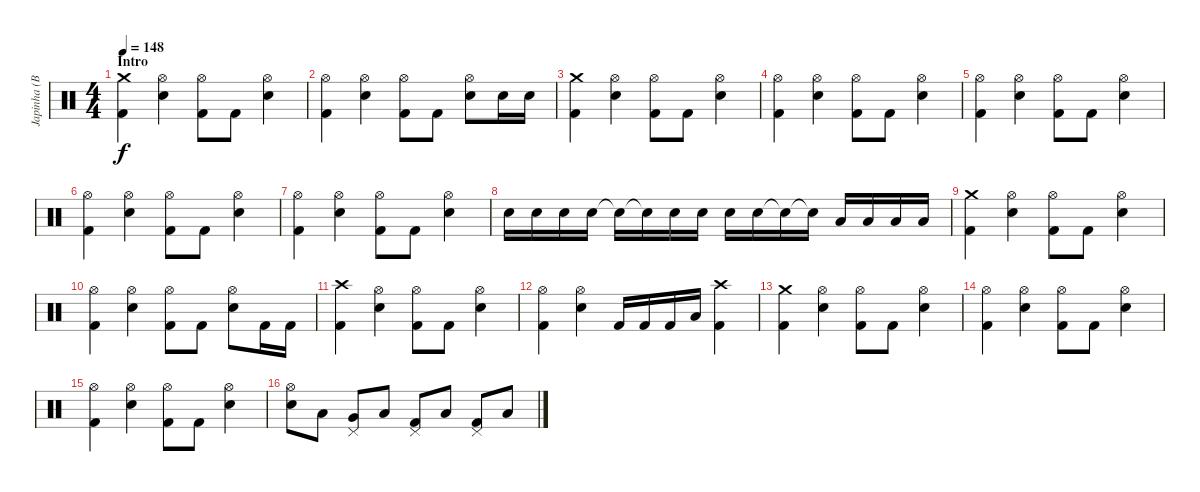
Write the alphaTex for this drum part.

\track ("Japinha (Bateria)" "Japinha (B") {instrument percussion}
\staff {score}
\articulation defaults
\ts (4 4)
\section ("" "Intro")
\tempo 148
\clef neutral
\ks c
("Crash medium (hit)" "Kick (hit) 2").4{dy f} ("Hi-Hat (open)" "Snare (hit) 2").4 ("Hi-Hat (open)" "Kick (hit) 2").8 "Kick (hit) 2".8 ("Hi-Hat (open)" "Snare (hit) 2").4 |
("Hi-Hat (open)" "Kick (hit) 2").4 ("Hi-Hat (open)" "Snare (hit) 2").4 ("Hi-Hat (open)" "Kick (hit) 2").8 "Kick (hit) 2".8 ("Hi-Hat (open)" "Snare (hit) 2").8 "Snare (hit) 2".16 "Snare (hit) 2".16 |
("Crash medium (hit)" "Kick (hit) 2").4 ("Hi-Hat (open)" "Snare (hit) 2").4 ("Hi-Hat (open)" "Kick (hit) 2").8 "Kick (hit) 2".8 ("Hi-Hat (open)" "Snare (hit) 2").4 |
("Hi-Hat (open)" "Kick (hit) 2").4 ("Hi-Hat (open)" "Snare (hit) 2").4 ("Hi-Hat (open)" "Kick (hit) 2").8 "Kick (hit) 2".8 ("Hi-Hat (open)" "Snare (hit) 2").4 |
("Hi-Hat (open)" "Kick (hit) 2").4 ("Hi-Hat (open)" "Snare (hit) 2").4 ("Hi-Hat (open)" "Kick (hit) 2").8 "Kick (hit) 2".8 ("Hi-Hat (open)" "Snare (hit) 2").4 |
("Hi-Hat (open)" "Kick (hit) 2").4 ("Hi-Hat (open)" "Snare (hit) 2").4 ("Hi-Hat (open)" "Kick (hit) 2").8 "Kick (hit) 2".8 ("Hi-Hat (open)" "Snare (hit) 2").4 |
("Hi-Hat (open)" "Kick (hit) 2").4 ("Hi-Hat (open)" "Snare (hit) 2").4 ("Hi-Hat (open)" "Kick (hit) 2").8 "Kick (hit) 2".8 ("Hi-Hat (open)" "Snare (hit) 2").4 |
"Snare (hit) 2".16 "Snare (hit) 2".16 "Snare (hit) 2".16 "Snare (hit) 2".16 "Snare (hit)"{t}.16 "Snare (hit)"{t}.16 "Snare (hit) 2".16 "Snare (hit) 2".16 "Snare (hit) 2".16 "Snare (hit) 2".16 "Snare (hit)"{t}.16 "Snare (hit)"{t}.16 "Low Tom (hit)".16 "Low Tom (hit)".16 "Low Tom (hit)".16 "Low Tom (hit)".16 |
("Crash medium (hit)" "Kick (hit) 2").4 ("Hi-Hat (open)" "Snare (hit) 2").4 ("Hi-Hat (open)" "Kick (hit) 2").8 "Kick (hit) 2".8 ("Hi-Hat (open)" "Snare (hit) 2").4 |
("Hi-Hat (open)" "Kick (hit) 2").4 ("Hi-Hat (open)" "Snare (hit) 2").4 ("Hi-Hat (open)" "Kick (hit) 2").8 "Kick (hit) 2".8 ("Hi-Hat (open)" "Snare (hit) 2").8 "Kick (hit) 2".16 "Kick (hit) 2".16 |
("Crash high (hit)" "Kick (hit) 2").4 ("Hi-Hat (open)" "Snare (hit) 2").4 ("Hi-Hat (open)" "Kick (hit) 2").8 "Kick (hit) 2".8 ("Hi-Hat (open)" "Snare (hit) 2").4 |
("Hi-Hat (open)" "Kick (hit) 2").4 ("Hi-Hat (open)" "Snare (hit) 2").4 "Kick (hit) 2".16 "Kick (hit) 2".16 "Kick (hit) 2".16 "Low Tom (hit)".16 ("Crash high (hit)" "Kick (hit) 2").4 |
("Crash medium (hit)" "Kick (hit) 2").4 ("Hi-Hat (open)" "Snare (hit) 2").4 ("Hi-Hat (open)" "Kick (hit) 2").8 "Kick (hit) 2".8 ("Hi-Hat (open)" "Snare (hit) 2").4 |
("Hi-Hat (open)" "Kick (hit) 2").4 ("Hi-Hat (open)" "Snare (hit) 2").4 ("Hi-Hat (open)" "Kick (hit) 2").8 "Kick (hit) 2".8 ("Hi-Hat (open)" "Snare (hit) 2").4 |
("Hi-Hat (open)" "Kick (hit) 2").4 ("Hi-Hat (open)" "Snare (hit) 2").4 ("Hi-Hat (open)" "Kick (hit) 2").8 "Kick (hit) 2".8 ("Hi-Hat (open)" "Electric Snare (hit)").4 |
("Hi-Hat (open)" "Snare (hit) 2").8 "Low Tom (hit)".8 ("Pedal Hi-Hat (hit)" "Very Low Tom (hit)").8 "Low Tom (hit)".8 ("Pedal Hi-Hat (hit)" "Kick (hit) 2").8 "Low Tom (hit)".8 ("Pedal Hi-Hat (hit)" "Kick (hit) 2").8 "Low Tom (hit)".8
